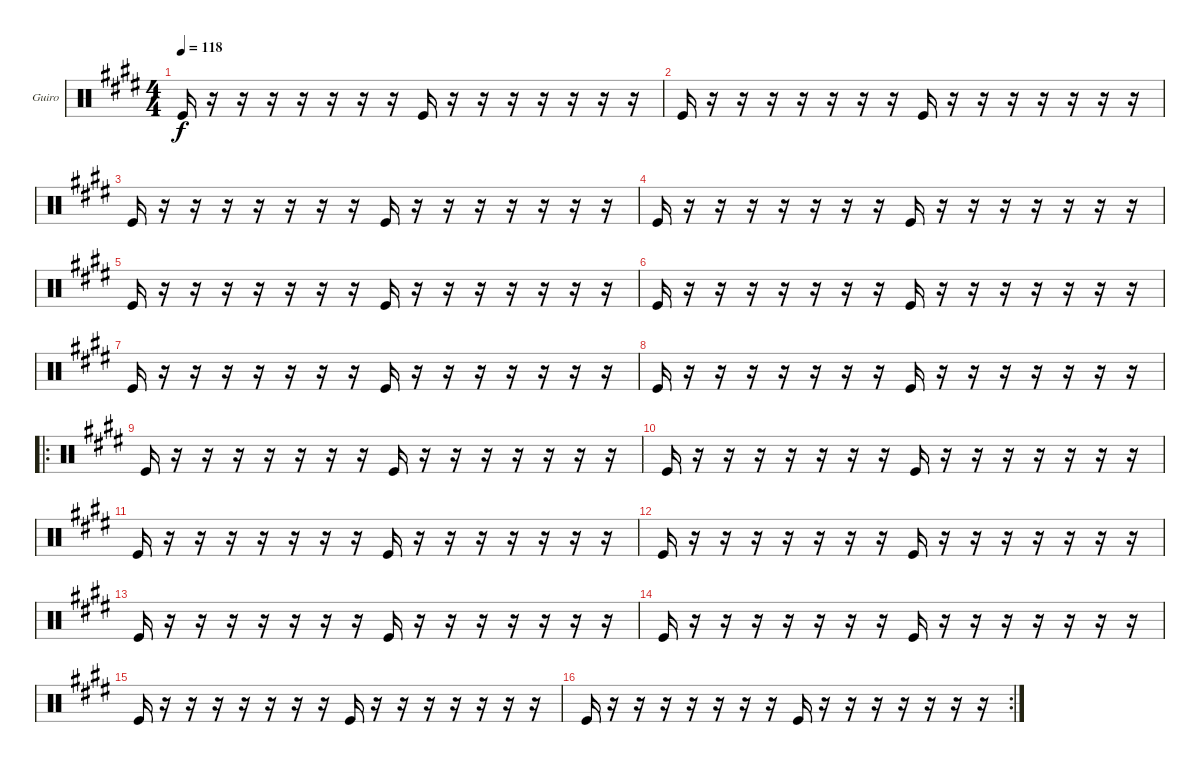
\bracketExtendMode groupsimilarinstruments
\firstSystemTrackNameOrientation horizontal
\otherSystemsTrackNameOrientation horizontal
\track ("Guiro" "Guiro") {instrument percussion}
\staff {score}
\articulation defaults
\ts (4 4)
\tempo 118
\clef neutral
\ks e "Kick (hit)".16{dy f}
r.16 r.16 r.16 r.16 r.16 r.16 r.16 "Kick (hit)".16 r.16 r.16 r.16 r.16 r.16 r.16 r.16 |
"Kick (hit)".16 r.16 r.16 r.16 r.16 r.16 r.16 r.16 "Kick (hit)".16 r.16 r.16 r.16 r.16 r.16 r.16 r.16 |
"Kick (hit)".16 r.16 r.16 r.16 r.16 r.16 r.16 r.16 "Kick (hit)".16 r.16 r.16 r.16 r.16 r.16 r.16 r.16 |
"Kick (hit)".16 r.16 r.16 r.16 r.16 r.16 r.16 r.16 "Kick (hit)".16 r.16 r.16 r.16 r.16 r.16 r.16 r.16 |
"Kick (hit)".16 r.16 r.16 r.16 r.16 r.16 r.16 r.16 "Kick (hit)".16 r.16 r.16 r.16 r.16 r.16 r.16 r.16 |
"Kick (hit)".16 r.16 r.16 r.16 r.16 r.16 r.16 r.16 "Kick (hit)".16 r.16 r.16 r.16 r.16 r.16 r.16 r.16 |
"Kick (hit)".16 r.16 r.16 r.16 r.16 r.16 r.16 r.16 "Kick (hit)".16 r.16 r.16 r.16 r.16 r.16 r.16 r.16 |
"Kick (hit)".16 r.16 r.16 r.16 r.16 r.16 r.16 r.16 "Kick (hit)".16 r.16 r.16 r.16 r.16 r.16 r.16 r.16 |
\ro "Kick (hit)".16
r.16 r.16 r.16 r.16 r.16 r.16 r.16 "Kick (hit)".16 r.16 r.16 r.16 r.16 r.16 r.16 r.16 |
"Kick (hit)".16 r.16 r.16 r.16 r.16 r.16 r.16 r.16 "Kick (hit)".16 r.16 r.16 r.16 r.16 r.16 r.16 r.16 |
"Kick (hit)".16 r.16 r.16 r.16 r.16 r.16 r.16 r.16 "Kick (hit)".16 r.16 r.16 r.16 r.16 r.16 r.16 r.16 |
"Kick (hit)".16 r.16 r.16 r.16 r.16 r.16 r.16 r.16 "Kick (hit)".16 r.16 r.16 r.16 r.16 r.16 r.16 r.16 |
"Kick (hit)".16 r.16 r.16 r.16 r.16 r.16 r.16 r.16 "Kick (hit)".16 r.16 r.16 r.16 r.16 r.16 r.16 r.16 |
"Kick (hit)".16 r.16 r.16 r.16 r.16 r.16 r.16 r.16 "Kick (hit)".16 r.16 r.16 r.16 r.16 r.16 r.16 r.16 |
"Kick (hit)".16 r.16 r.16 r.16 r.16 r.16 r.16 r.16 "Kick (hit)".16 r.16 r.16 r.16 r.16 r.16 r.16 r.16 |
\rc 2 "Kick (hit)".16
r.16 r.16 r.16 r.16 r.16 r.16 r.16 "Kick (hit)".16 r.16 r.16 r.16 r.16 r.16 r.16 r.16
